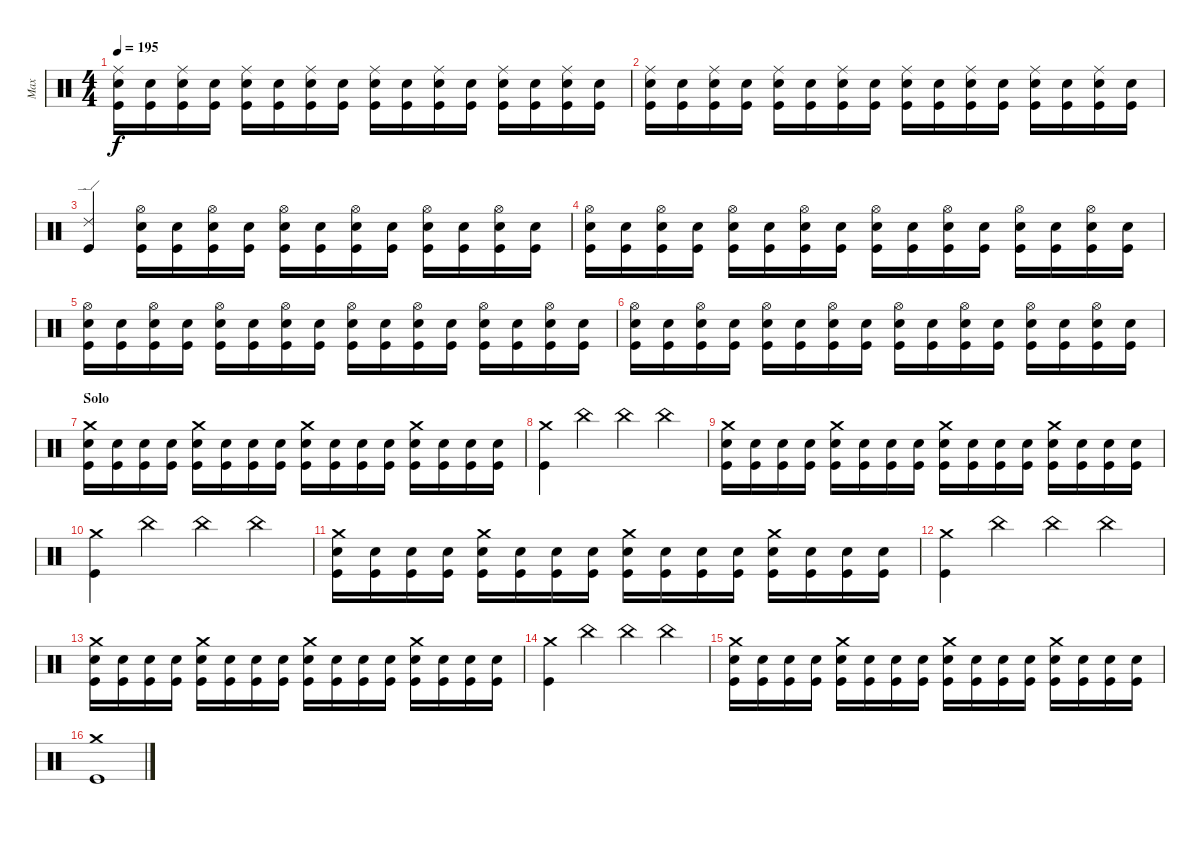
\track ("Max" "Max") {instrument percussion}
\staff {score}
\articulation defaults
\ts (4 4)
\tempo 195
\clef neutral
\ks c
("Ride (middle)" "Electric Snare (hit)" "Kick (hit)").16{dy f} ("Electric Snare (hit)" "Kick (hit)").16 ("Ride (middle)" "Electric Snare (hit)" "Kick (hit)").16 ("Electric Snare (hit)" "Kick (hit)").16 ("Ride (middle)" "Electric Snare (hit)" "Kick (hit)").16 ("Electric Snare (hit)" "Kick (hit)").16 ("Ride (middle)" "Electric Snare (hit)" "Kick (hit)").16 ("Electric Snare (hit)" "Kick (hit)").16 ("Ride (middle)" "Electric Snare (hit)" "Kick (hit)").16 ("Electric Snare (hit)" "Kick (hit)").16 ("Ride (middle)" "Electric Snare (hit)" "Kick (hit)").16 ("Electric Snare (hit)" "Kick (hit)").16 ("Ride (middle)" "Electric Snare (hit)" "Kick (hit)").16 ("Electric Snare (hit)" "Kick (hit)").16 ("Ride (middle)" "Electric Snare (hit)" "Kick (hit)").16 ("Electric Snare (hit)" "Kick (hit)").16 |
("Ride (middle)" "Electric Snare (hit)" "Kick (hit)").16 ("Electric Snare (hit)" "Kick (hit)").16 ("Ride (middle)" "Electric Snare (hit)" "Kick (hit)").16 ("Electric Snare (hit)" "Kick (hit)").16 ("Ride (middle)" "Electric Snare (hit)" "Kick (hit)").16 ("Electric Snare (hit)" "Kick (hit)").16 ("Ride (middle)" "Electric Snare (hit)" "Kick (hit)").16 ("Electric Snare (hit)" "Kick (hit)").16 ("Ride (middle)" "Electric Snare (hit)" "Kick (hit)").16 ("Electric Snare (hit)" "Kick (hit)").16 ("Ride (middle)" "Electric Snare (hit)" "Kick (hit)").16 ("Electric Snare (hit)" "Kick (hit)").16 ("Ride (middle)" "Electric Snare (hit)" "Kick (hit)").16 ("Electric Snare (hit)" "Kick (hit)").16 ("Ride (middle)" "Electric Snare (hit)" "Kick (hit)").16 ("Electric Snare (hit)" "Kick (hit)").16 |
("Ride (edge) 2" "Kick (hit)").4 ("Hi-Hat (open)" "Electric Snare (hit)" "Kick (hit)").16 ("Electric Snare (hit)" "Kick (hit)").16 ("Hi-Hat (open)" "Electric Snare (hit)" "Kick (hit)").16 ("Electric Snare (hit)" "Kick (hit)").16 ("Hi-Hat (open)" "Electric Snare (hit)" "Kick (hit)").16 ("Electric Snare (hit)" "Kick (hit)").16 ("Hi-Hat (open)" "Electric Snare (hit)" "Kick (hit)").16 ("Electric Snare (hit)" "Kick (hit)").16 ("Hi-Hat (open)" "Electric Snare (hit)" "Kick (hit)").16 ("Electric Snare (hit)" "Kick (hit)").16 ("Hi-Hat (open)" "Electric Snare (hit)" "Kick (hit)").16 ("Electric Snare (hit)" "Kick (hit)").16 |
("Hi-Hat (open)" "Electric Snare (hit)" "Kick (hit)").16 ("Electric Snare (hit)" "Kick (hit)").16 ("Hi-Hat (open)" "Electric Snare (hit)" "Kick (hit)").16 ("Electric Snare (hit)" "Kick (hit)").16 ("Hi-Hat (open)" "Electric Snare (hit)" "Kick (hit)").16 ("Electric Snare (hit)" "Kick (hit)").16 ("Hi-Hat (open)" "Electric Snare (hit)" "Kick (hit)").16 ("Electric Snare (hit)" "Kick (hit)").16 ("Hi-Hat (open)" "Electric Snare (hit)" "Kick (hit)").16 ("Electric Snare (hit)" "Kick (hit)").16 ("Hi-Hat (open)" "Electric Snare (hit)" "Kick (hit)").16 ("Electric Snare (hit)" "Kick (hit)").16 ("Hi-Hat (open)" "Electric Snare (hit)" "Kick (hit)").16 ("Electric Snare (hit)" "Kick (hit)").16 ("Hi-Hat (open)" "Electric Snare (hit)" "Kick (hit)").16 ("Electric Snare (hit)" "Kick (hit)").16 |
("Hi-Hat (open)" "Electric Snare (hit)" "Kick (hit)").16 ("Electric Snare (hit)" "Kick (hit)").16 ("Hi-Hat (open)" "Electric Snare (hit)" "Kick (hit)").16 ("Electric Snare (hit)" "Kick (hit)").16 ("Hi-Hat (open)" "Electric Snare (hit)" "Kick (hit)").16 ("Electric Snare (hit)" "Kick (hit)").16 ("Hi-Hat (open)" "Electric Snare (hit)" "Kick (hit)").16 ("Electric Snare (hit)" "Kick (hit)").16 ("Hi-Hat (open)" "Electric Snare (hit)" "Kick (hit)").16 ("Electric Snare (hit)" "Kick (hit)").16 ("Hi-Hat (open)" "Electric Snare (hit)" "Kick (hit)").16 ("Electric Snare (hit)" "Kick (hit)").16 ("Hi-Hat (open)" "Electric Snare (hit)" "Kick (hit)").16 ("Electric Snare (hit)" "Kick (hit)").16 ("Hi-Hat (open)" "Electric Snare (hit)" "Kick (hit)").16 ("Electric Snare (hit)" "Kick (hit)").16 |
("Hi-Hat (open)" "Electric Snare (hit)" "Kick (hit)").16 ("Electric Snare (hit)" "Kick (hit)").16 ("Hi-Hat (open)" "Electric Snare (hit)" "Kick (hit)").16 ("Electric Snare (hit)" "Kick (hit)").16 ("Hi-Hat (open)" "Electric Snare (hit)" "Kick (hit)").16 ("Electric Snare (hit)" "Kick (hit)").16 ("Hi-Hat (open)" "Electric Snare (hit)" "Kick (hit)").16 ("Electric Snare (hit)" "Kick (hit)").16 ("Hi-Hat (open)" "Electric Snare (hit)" "Kick (hit)").16 ("Electric Snare (hit)" "Kick (hit)").16 ("Hi-Hat (open)" "Electric Snare (hit)" "Kick (hit)").16 ("Electric Snare (hit)" "Kick (hit)").16 ("Hi-Hat (open)" "Electric Snare (hit)" "Kick (hit)").16 ("Electric Snare (hit)" "Kick (hit)").16 ("Hi-Hat (open)" "Electric Snare (hit)" "Kick (hit)").16 ("Electric Snare (hit)" "Kick (hit)").16 |
\section ("" "Solo")
("Crash medium (hit)" "Electric Snare (hit)" "Kick (hit)").16 ("Electric Snare (hit)" "Kick (hit)").16 ("Electric Snare (hit)" "Kick (hit)").16 ("Electric Snare (hit)" "Kick (hit)").16 ("Crash medium (hit)" "Electric Snare (hit)" "Kick (hit)").16 ("Electric Snare (hit)" "Kick (hit)").16 ("Electric Snare (hit)" "Kick (hit)").16 ("Electric Snare (hit)" "Kick (hit)").16 ("Crash medium (hit)" "Electric Snare (hit)" "Kick (hit)").16 ("Electric Snare (hit)" "Kick (hit)").16 ("Electric Snare (hit)" "Kick (hit)").16 ("Electric Snare (hit)" "Kick (hit)").16 ("Crash medium (hit)" "Electric Snare (hit)" "Kick (hit)").16 ("Electric Snare (hit)" "Kick (hit)").16 ("Electric Snare (hit)" "Kick (hit)").16 ("Electric Snare (hit)" "Kick (hit)").16 |
("Crash medium (hit)" "Kick (hit)").4 "China (hit)".4 "China (hit)".4 "China (hit)".4 |
("Crash medium (hit)" "Electric Snare (hit)" "Kick (hit)").16 ("Electric Snare (hit)" "Kick (hit)").16 ("Electric Snare (hit)" "Kick (hit)").16 ("Electric Snare (hit)" "Kick (hit)").16 ("Crash medium (hit)" "Electric Snare (hit)" "Kick (hit)").16 ("Electric Snare (hit)" "Kick (hit)").16 ("Electric Snare (hit)" "Kick (hit)").16 ("Electric Snare (hit)" "Kick (hit)").16 ("Crash medium (hit)" "Electric Snare (hit)" "Kick (hit)").16 ("Electric Snare (hit)" "Kick (hit)").16 ("Electric Snare (hit)" "Kick (hit)").16 ("Electric Snare (hit)" "Kick (hit)").16 ("Crash medium (hit)" "Electric Snare (hit)" "Kick (hit)").16 ("Electric Snare (hit)" "Kick (hit)").16 ("Electric Snare (hit)" "Kick (hit)").16 ("Electric Snare (hit)" "Kick (hit)").16 |
("Crash medium (hit)" "Kick (hit)").4 "China (hit)".4 "China (hit)".4 "China (hit)".4 |
("Crash medium (hit)" "Electric Snare (hit)" "Kick (hit)").16 ("Electric Snare (hit)" "Kick (hit)").16 ("Electric Snare (hit)" "Kick (hit)").16 ("Electric Snare (hit)" "Kick (hit)").16 ("Crash medium (hit)" "Electric Snare (hit)" "Kick (hit)").16 ("Electric Snare (hit)" "Kick (hit)").16 ("Electric Snare (hit)" "Kick (hit)").16 ("Electric Snare (hit)" "Kick (hit)").16 ("Crash medium (hit)" "Electric Snare (hit)" "Kick (hit)").16 ("Electric Snare (hit)" "Kick (hit)").16 ("Electric Snare (hit)" "Kick (hit)").16 ("Electric Snare (hit)" "Kick (hit)").16 ("Crash medium (hit)" "Electric Snare (hit)" "Kick (hit)").16 ("Electric Snare (hit)" "Kick (hit)").16 ("Electric Snare (hit)" "Kick (hit)").16 ("Electric Snare (hit)" "Kick (hit)").16 |
("Crash medium (hit)" "Kick (hit)").4 "China (hit)".4 "China (hit)".4 "China (hit)".4 |
("Crash medium (hit)" "Electric Snare (hit)" "Kick (hit)").16 ("Electric Snare (hit)" "Kick (hit)").16 ("Electric Snare (hit)" "Kick (hit)").16 ("Electric Snare (hit)" "Kick (hit)").16 ("Crash medium (hit)" "Electric Snare (hit)" "Kick (hit)").16 ("Electric Snare (hit)" "Kick (hit)").16 ("Electric Snare (hit)" "Kick (hit)").16 ("Electric Snare (hit)" "Kick (hit)").16 ("Crash medium (hit)" "Electric Snare (hit)" "Kick (hit)").16 ("Electric Snare (hit)" "Kick (hit)").16 ("Electric Snare (hit)" "Kick (hit)").16 ("Electric Snare (hit)" "Kick (hit)").16 ("Crash medium (hit)" "Electric Snare (hit)" "Kick (hit)").16 ("Electric Snare (hit)" "Kick (hit)").16 ("Electric Snare (hit)" "Kick (hit)").16 ("Electric Snare (hit)" "Kick (hit)").16 |
("Crash medium (hit)" "Kick (hit)").4 "China (hit)".4 "China (hit)".4 "China (hit)".4 |
("Crash medium (hit)" "Electric Snare (hit)" "Kick (hit)").16 ("Electric Snare (hit)" "Kick (hit)").16 ("Electric Snare (hit)" "Kick (hit)").16 ("Electric Snare (hit)" "Kick (hit)").16 ("Crash medium (hit)" "Electric Snare (hit)" "Kick (hit)").16 ("Electric Snare (hit)" "Kick (hit)").16 ("Electric Snare (hit)" "Kick (hit)").16 ("Electric Snare (hit)" "Kick (hit)").16 ("Crash medium (hit)" "Electric Snare (hit)" "Kick (hit)").16 ("Electric Snare (hit)" "Kick (hit)").16 ("Electric Snare (hit)" "Kick (hit)").16 ("Electric Snare (hit)" "Kick (hit)").16 ("Crash medium (hit)" "Electric Snare (hit)" "Kick (hit)").16 ("Electric Snare (hit)" "Kick (hit)").16 ("Electric Snare (hit)" "Kick (hit)").16 ("Electric Snare (hit)" "Kick (hit)").16 |
("Crash medium (hit)" "Kick (hit)").1
